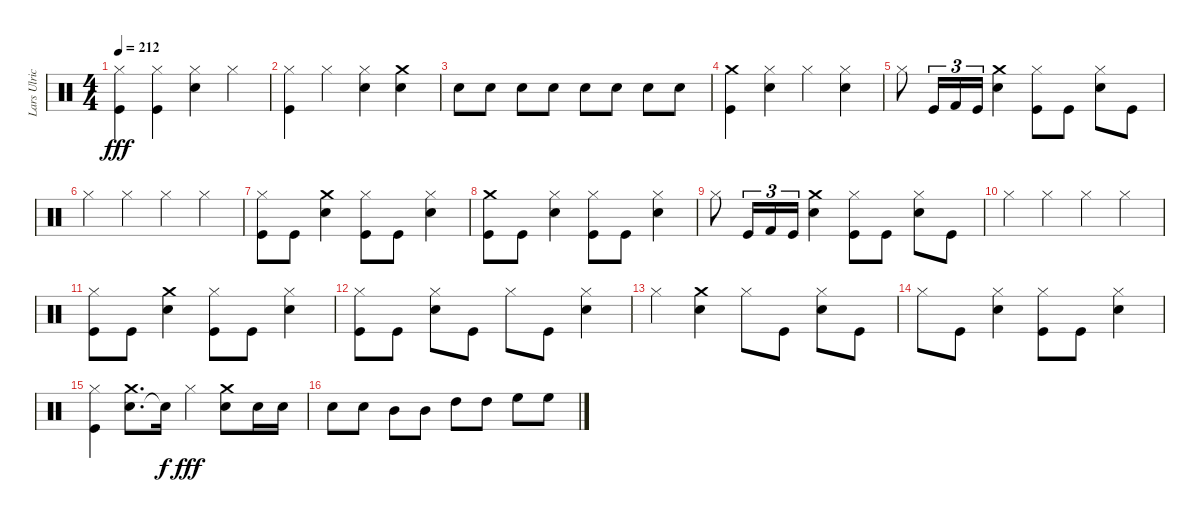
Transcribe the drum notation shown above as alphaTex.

\track ("Lars Ulrich" "Lars Ulric") {instrument percussion}
\staff {score}
\articulation defaults
\ts (4 4)
\tempo 212
\clef neutral
\ks c
("Kick (hit)" "Hi-Hat (closed)").4{dy fff} ("Kick (hit)" "Hi-Hat (closed)").4 ("Snare (hit) 2" "Hi-Hat (closed)").4 "Hi-Hat (closed)".4 |
("Kick (hit)" "Hi-Hat (closed)").4 "Hi-Hat (closed)".4 ("Snare (hit) 2" "Hi-Hat (closed)").4 ("Snare (hit) 2" "Crash medium (hit)").4 |
"Snare (hit) 2".8 "Snare (hit) 2".8 "Snare (hit) 2".8 "Snare (hit) 2".8 "Snare (hit) 2".8 "Snare (hit) 2".8 "Snare (hit) 2".8 "Snare (hit) 2".8 |
("Kick (hit)" "Crash medium (hit)").4 ("Hi-Hat (closed)" "Snare (hit) 2").4 "Hi-Hat (closed)".4 ("Snare (hit) 2" "Hi-Hat (closed)").4 |
"Hi-Hat (closed)".8 "Kick (hit)".16{tu (3 2)} "Kick (hit) 2".16{tu (3 2)} "Kick (hit)".16{tu (3 2)} ("Snare (hit) 2" "Crash medium (hit)").4 ("Kick (hit)" "Hi-Hat (closed)").8 "Kick (hit)".8 ("Snare (hit) 2" "Hi-Hat (closed)").8 "Kick (hit)".8 |
"Hi-Hat (closed)".4 "Hi-Hat (closed)".4 "Hi-Hat (closed)".4 "Hi-Hat (closed)".4 |
("Kick (hit)" "Hi-Hat (closed)").8 "Kick (hit)".8 ("Snare (hit) 2" "Crash medium (hit)").4 ("Hi-Hat (closed)" "Kick (hit)").8 "Kick (hit)".8 ("Snare (hit) 2" "Hi-Hat (closed)").4 |
("Kick (hit)" "Crash medium (hit)").8 "Kick (hit)".8 ("Snare (hit) 2" "Hi-Hat (closed)").4 ("Kick (hit)" "Hi-Hat (closed)").8 "Kick (hit)".8 ("Snare (hit) 2" "Hi-Hat (closed)").4 |
"Hi-Hat (closed)".8 "Kick (hit)".16{tu (3 2)} "Kick (hit) 2".16{tu (3 2)} "Kick (hit)".16{tu (3 2)} ("Snare (hit) 2" "Crash medium (hit)").4 ("Kick (hit)" "Hi-Hat (closed)").8 "Kick (hit)".8 ("Snare (hit) 2" "Hi-Hat (closed)").8 "Kick (hit)".8 |
"Hi-Hat (closed)".4 "Hi-Hat (closed)".4 "Hi-Hat (closed)".4 "Hi-Hat (closed)".4 |
("Kick (hit)" "Hi-Hat (closed)").8 "Kick (hit)".8 ("Snare (hit) 2" "Crash medium (hit)").4 ("Kick (hit)" "Hi-Hat (closed)").8 "Kick (hit)".8 ("Hi-Hat (closed)" "Snare (hit) 2").4 |
("Kick (hit)" "Hi-Hat (closed)").8 "Kick (hit)".8 ("Snare (hit) 2" "Hi-Hat (closed)").8 "Kick (hit)".8 "Hi-Hat (closed)".8 "Kick (hit)".8 ("Snare (hit) 2" "Hi-Hat (closed)").4 |
"Hi-Hat (closed)".4 ("Crash medium (hit)" "Snare (hit) 2").4 "Hi-Hat (closed)".8 "Kick (hit)".8 ("Snare (hit) 2" "Hi-Hat (closed)").8 "Kick (hit)".8 |
"Hi-Hat (closed)".8 "Kick (hit)".8 ("Snare (hit) 2" "Hi-Hat (closed)").4 ("Kick (hit)" "Hi-Hat (closed)").8 "Kick (hit)".8 ("Snare (hit) 2" "Hi-Hat (closed)").4 |
("Kick (hit)" "Hi-Hat (closed)").4 ("Snare (hit) 2" "Crash medium (hit)").8{d} "Snare (hit)"{t}.16{dy f} "Hi-Hat (closed)".4{dy fff} ("Snare (hit) 2" "Crash medium (hit)").8 "Snare (hit) 2".16 "Snare (hit) 2".16 |
"Snare (hit) 2".8 "Snare (hit) 2".8 "Mid Tom (hit)".8 "Mid Tom (hit)".8 "High Tom (hit)".8 "High Tom (hit)".8 "High Floor Tom (hit)".8 "High Floor Tom (hit)".8
